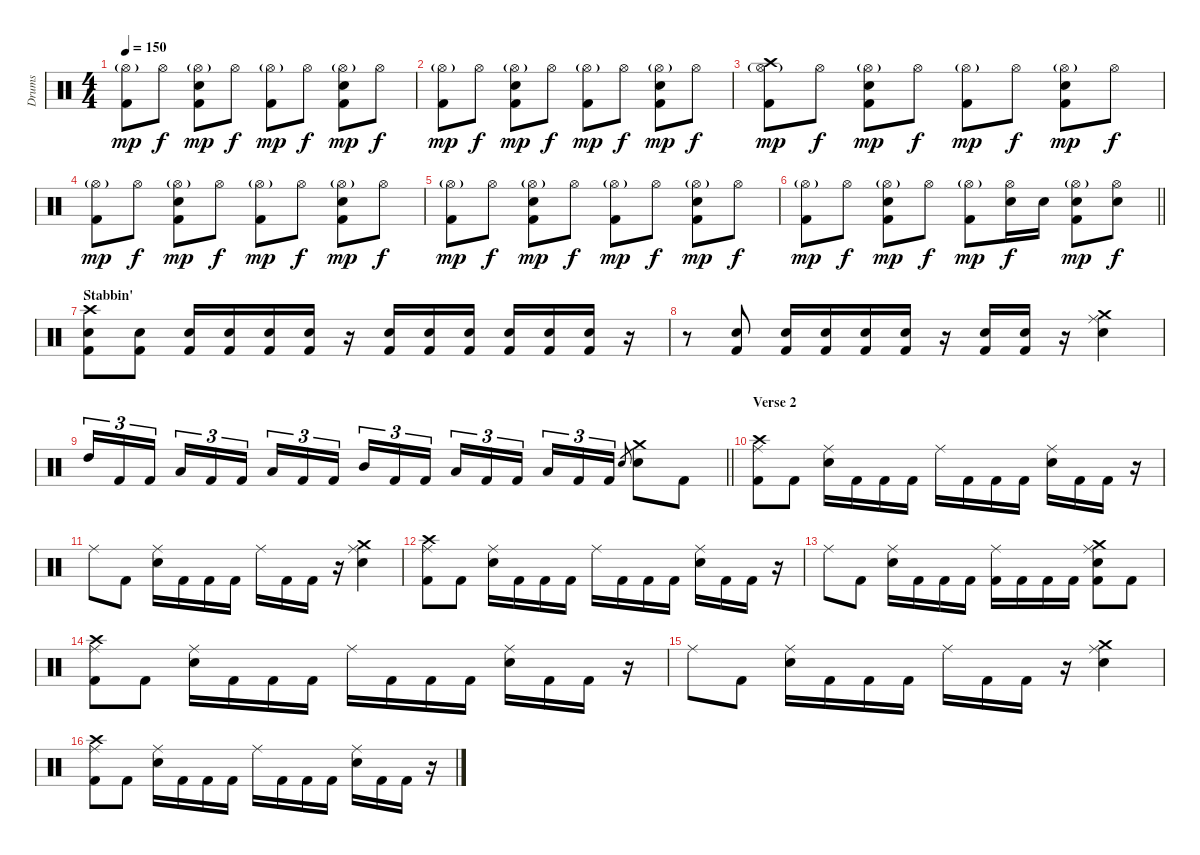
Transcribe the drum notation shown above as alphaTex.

\track ("Drums" "Drums") {instrument percussion}
\staff {score}
\articulation defaults
\ts (4 4)
\tempo 150
\clef neutral
\ks c
("Hi-Hat (open)"{g} "Kick (hit) 2").8{dy mp} "Hi-Hat (open)".8{dy f} ("Hi-Hat (open)"{g} "Snare (hit) 2" "Kick (hit) 2").8{dy mp} "Hi-Hat (open)".8{dy f} ("Hi-Hat (open)"{g} "Kick (hit) 2").8{dy mp} "Hi-Hat (open)".8{dy f} ("Hi-Hat (open)"{g} "Snare (hit) 2" "Kick (hit) 2").8{dy mp} "Hi-Hat (open)".8{dy f} |
("Hi-Hat (open)"{g} "Kick (hit) 2").8{dy mp} "Hi-Hat (open)".8{dy f} ("Hi-Hat (open)"{g} "Snare (hit) 2" "Kick (hit) 2").8{dy mp} "Hi-Hat (open)".8{dy f} ("Hi-Hat (open)"{g} "Kick (hit) 2").8{dy mp} "Hi-Hat (open)".8{dy f} ("Hi-Hat (open)"{g} "Snare (hit) 2" "Kick (hit) 2").8{dy mp} "Hi-Hat (open)".8{dy f} |
("Crash high (hit)" "Hi-Hat (open)"{g} "Kick (hit) 2").8{dy mp} "Hi-Hat (open)".8{dy f} ("Hi-Hat (open)"{g} "Snare (hit) 2" "Kick (hit) 2").8{dy mp} "Hi-Hat (open)".8{dy f} ("Hi-Hat (open)"{g} "Kick (hit) 2").8{dy mp} "Hi-Hat (open)".8{dy f} ("Hi-Hat (open)"{g} "Snare (hit) 2" "Kick (hit) 2").8{dy mp} "Hi-Hat (open)".8{dy f} |
("Hi-Hat (open)"{g} "Kick (hit) 2").8{dy mp} "Hi-Hat (open)".8{dy f} ("Hi-Hat (open)"{g} "Snare (hit) 2" "Kick (hit) 2").8{dy mp} "Hi-Hat (open)".8{dy f} ("Hi-Hat (open)"{g} "Kick (hit) 2").8{dy mp} "Hi-Hat (open)".8{dy f} ("Hi-Hat (open)"{g} "Snare (hit) 2" "Kick (hit) 2").8{dy mp} "Hi-Hat (open)".8{dy f} |
("Hi-Hat (open)"{g} "Kick (hit) 2").8{dy mp} "Hi-Hat (open)".8{dy f} ("Hi-Hat (open)"{g} "Snare (hit) 2" "Kick (hit) 2").8{dy mp} "Hi-Hat (open)".8{dy f} ("Hi-Hat (open)"{g} "Kick (hit) 2").8{dy mp} "Hi-Hat (open)".8{dy f} ("Hi-Hat (open)"{g} "Snare (hit) 2" "Kick (hit) 2").8{dy mp} "Hi-Hat (open)".8{dy f} |
\barLineRight lightlight
("Hi-Hat (open)"{g} "Kick (hit) 2").8{dy mp} "Hi-Hat (open)".8{dy f} ("Hi-Hat (open)"{g} "Snare (hit) 2" "Kick (hit) 2").8{dy mp} "Hi-Hat (open)".8{dy f} ("Hi-Hat (open)"{g} "Kick (hit) 2").8{dy mp} ("Hi-Hat (open)" "Snare (hit) 2").16{dy f} "Snare (hit) 2".16 ("Hi-Hat (open)"{g} "Snare (hit) 2" "Kick (hit) 2").8{dy mp} ("Hi-Hat (open)" "Snare (hit) 2").8{dy f} |
\section ("" "Stabbin'")
("Crash high (hit)" "Snare (hit) 2" "Kick (hit) 2").8 ("Snare (hit) 2" "Kick (hit) 2").8 ("Snare (hit) 2" "Kick (hit) 2").16 ("Snare (hit) 2" "Kick (hit) 2").16 ("Snare (hit) 2" "Kick (hit) 2").16 ("Snare (hit) 2" "Kick (hit) 2").16 r.16 ("Snare (hit) 2" "Kick (hit) 2").16 ("Snare (hit) 2" "Kick (hit) 2").16 ("Snare (hit) 2" "Kick (hit) 2").16 ("Snare (hit) 2" "Kick (hit) 2").16 ("Snare (hit) 2" "Kick (hit) 2").16 ("Snare (hit) 2" "Kick (hit) 2").16 r.16 |
r.8 ("Snare (hit) 2" "Kick (hit) 2").8 ("Snare (hit) 2" "Kick (hit) 2").16 ("Snare (hit) 2" "Kick (hit) 2").16 ("Snare (hit) 2" "Kick (hit) 2").16 ("Snare (hit) 2" "Kick (hit) 2").16 r.16 ("Snare (hit) 2" "Kick (hit) 2").16 ("Snare (hit) 2" "Kick (hit) 2").16 r.16 ("Crash medium (hit)" "Ride (middle)" "Snare (hit) 2").4 |
\barLineRight lightlight "High Tom (hit)".16{tu (3 2)} "Kick (hit) 2".16{tu (3 2)} "Kick (hit) 2".16{tu (3 2) beam splitsecondary} "Low Tom (hit)".16{tu (3 2)} "Kick (hit) 2".16{tu (3 2)} "Kick (hit) 2".16{tu (3 2)} "Low Floor Tom (hit)".16{tu (3 2)} "Kick (hit) 2".16{tu (3 2)} "Kick (hit) 2".16{tu (3 2) beam splitsecondary} "Mid Tom (hit)".16{tu (3 2)} "Kick (hit) 2".16{tu (3 2)} "Kick (hit) 2".16{tu (3 2)} "Low Tom (hit)".16{tu (3 2)} "Kick (hit) 2".16{tu (3 2)} "Kick (hit) 2".16{tu (3 2) beam splitsecondary} "Low Floor Tom (hit)".16{tu (3 2)} "Kick (hit) 2".16{tu (3 2)} "Kick (hit) 2".16{tu (3 2)} "Snare (hit) 2".8{gr}
("Crash medium (hit)" "Snare (hit) 2").8 "Kick (hit) 2".8 |
\section ("" "Verse 2")
("Crash high (hit)" "Ride (middle)" "Kick (hit) 2").8 "Kick (hit) 2".8 ("Ride (middle)" "Snare (hit) 2").16 "Kick (hit) 2".16 "Kick (hit) 2".16 "Kick (hit) 2".16 "Ride (middle)".16 "Kick (hit) 2".16 "Kick (hit) 2".16 "Kick (hit) 2".16 ("Ride (middle)" "Snare (hit) 2").16 "Kick (hit) 2".16 "Kick (hit) 2".16 r.16 |
"Ride (middle)".8 "Kick (hit) 2".8 ("Ride (middle)" "Snare (hit) 2").16 "Kick (hit) 2".16 "Kick (hit) 2".16 "Kick (hit) 2".16 "Ride (middle)".16 "Kick (hit) 2".16 "Kick (hit) 2".16 r.16 ("Crash medium (hit)" "Ride (middle)" "Snare (hit) 2").4 |
("Crash high (hit)" "Ride (middle)" "Kick (hit) 2").8 "Kick (hit) 2".8 ("Ride (middle)" "Snare (hit) 2").16 "Kick (hit) 2".16 "Kick (hit) 2".16 "Kick (hit) 2".16 "Ride (middle)".16 "Kick (hit) 2".16 "Kick (hit) 2".16 "Kick (hit) 2".16 ("Ride (middle)" "Snare (hit) 2").16 "Kick (hit) 2".16 "Kick (hit) 2".16 r.16 |
"Ride (middle)".8 "Kick (hit) 2".8 ("Ride (middle)" "Snare (hit) 2").16 "Kick (hit) 2".16 "Kick (hit) 2".16 "Kick (hit) 2".16 ("Ride (middle)" "Kick (hit) 2").16 "Kick (hit) 2".16 "Kick (hit) 2".16 "Kick (hit) 2".16 ("Crash medium (hit)" "Ride (middle)" "Snare (hit) 2" "Kick (hit) 2").8 "Kick (hit) 2".8 |
("Crash high (hit)" "Ride (middle)" "Kick (hit) 2").8 "Kick (hit) 2".8 ("Ride (middle)" "Snare (hit) 2").16 "Kick (hit) 2".16 "Kick (hit) 2".16 "Kick (hit) 2".16 "Ride (middle)".16 "Kick (hit) 2".16 "Kick (hit) 2".16 "Kick (hit) 2".16 ("Ride (middle)" "Snare (hit) 2").16 "Kick (hit) 2".16 "Kick (hit) 2".16 r.16 |
"Ride (middle)".8 "Kick (hit) 2".8 ("Ride (middle)" "Snare (hit) 2").16 "Kick (hit) 2".16 "Kick (hit) 2".16 "Kick (hit) 2".16 "Ride (middle)".16 "Kick (hit) 2".16 "Kick (hit) 2".16 r.16 ("Crash medium (hit)" "Ride (middle)" "Snare (hit) 2").4 |
("Crash high (hit)" "Ride (middle)" "Kick (hit) 2").8 "Kick (hit) 2".8 ("Ride (middle)" "Snare (hit) 2").16 "Kick (hit) 2".16 "Kick (hit) 2".16 "Kick (hit) 2".16 "Ride (middle)".16 "Kick (hit) 2".16 "Kick (hit) 2".16 "Kick (hit) 2".16 ("Ride (middle)" "Snare (hit) 2").16 "Kick (hit) 2".16 "Kick (hit) 2".16 r.16
